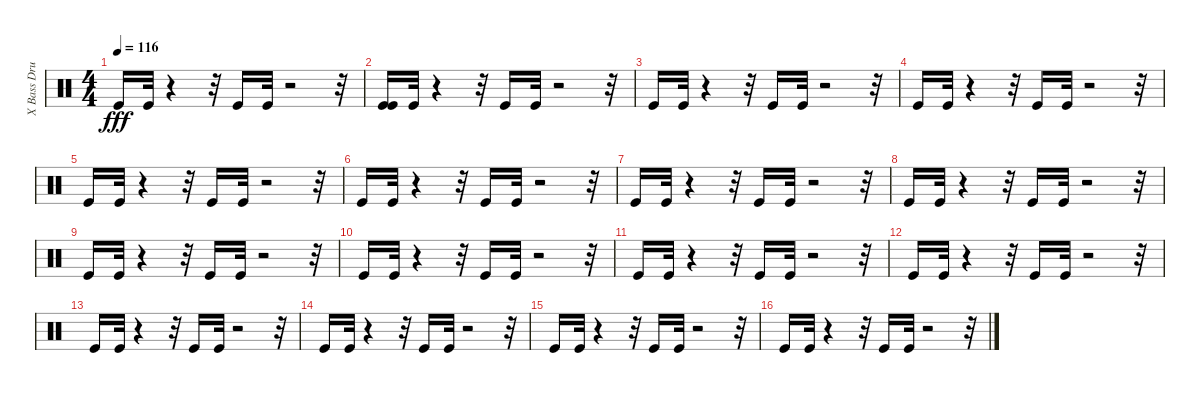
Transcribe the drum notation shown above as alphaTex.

\track ("X Bass Drum         " "X Bass Dru") {instrument percussion}
\staff {score}
\articulation defaults
\ts (4 4)
\tempo 116
\clef neutral
\ks c "Kick (hit)".16{dy fff} "Kick (hit)".32
r.4 r.32 "Kick (hit)".16 "Kick (hit)".32 r.2 r.32 |
("Kick (hit)" "Kick (hit)").16 "Kick (hit)".32 r.4 r.32 "Kick (hit)".16 "Kick (hit)".32 r.2 r.32 |
"Kick (hit)".16 "Kick (hit)".32 r.4 r.32 "Kick (hit)".16 "Kick (hit)".32 r.2 r.32 |
"Kick (hit)".16 "Kick (hit)".32 r.4 r.32 "Kick (hit)".16 "Kick (hit)".32 r.2 r.32 |
"Kick (hit)".16 "Kick (hit)".32 r.4 r.32 "Kick (hit)".16 "Kick (hit)".32 r.2 r.32 |
"Kick (hit)".16 "Kick (hit)".32 r.4 r.32 "Kick (hit)".16 "Kick (hit)".32 r.2 r.32 |
"Kick (hit)".16 "Kick (hit)".32 r.4 r.32 "Kick (hit)".16 "Kick (hit)".32 r.2 r.32 |
"Kick (hit)".16 "Kick (hit)".32 r.4 r.32 "Kick (hit)".16 "Kick (hit)".32 r.2 r.32 |
"Kick (hit)".16 "Kick (hit)".32 r.4 r.32 "Kick (hit)".16 "Kick (hit)".32 r.2 r.32 |
"Kick (hit)".16 "Kick (hit)".32 r.4 r.32 "Kick (hit)".16 "Kick (hit)".32 r.2 r.32 |
"Kick (hit)".16 "Kick (hit)".32 r.4 r.32 "Kick (hit)".16 "Kick (hit)".32 r.2 r.32 |
"Kick (hit)".16 "Kick (hit)".32 r.4 r.32 "Kick (hit)".16 "Kick (hit)".32 r.2 r.32 |
"Kick (hit)".16 "Kick (hit)".32 r.4 r.32 "Kick (hit)".16 "Kick (hit)".32 r.2 r.32 |
"Kick (hit)".16 "Kick (hit)".32 r.4 r.32 "Kick (hit)".16 "Kick (hit)".32 r.2 r.32 |
"Kick (hit)".16 "Kick (hit)".32 r.4 r.32 "Kick (hit)".16 "Kick (hit)".32 r.2 r.32 |
"Kick (hit)".16 "Kick (hit)".32 r.4 r.32 "Kick (hit)".16 "Kick (hit)".32 r.2 r.32
